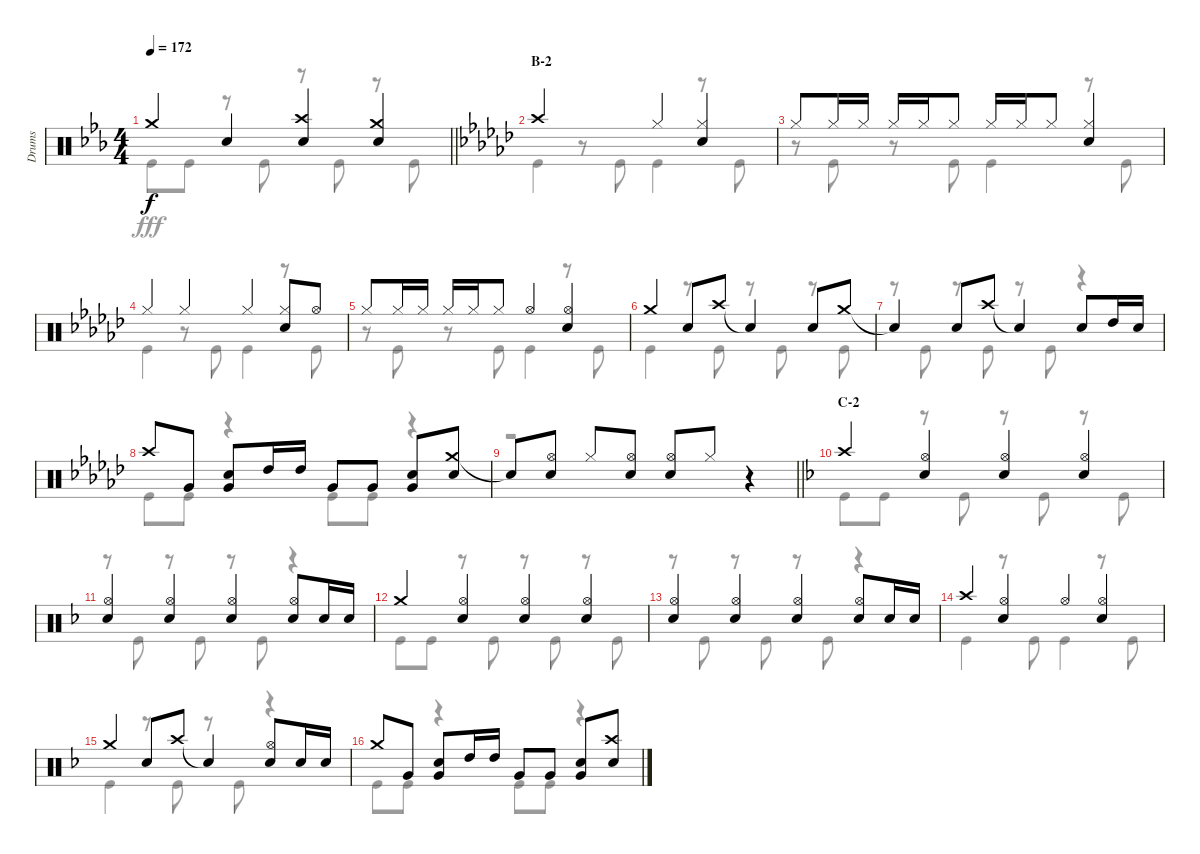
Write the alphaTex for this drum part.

\track ("Drums" "Drums") {instrument percussion}
\staff {score}
\articulation defaults
\voice
\ts (4 4)
\tempo 172
\clef neutral
\barLineRight lightlight
\ks eb "Crash medium (hit)".4{dy f} "Snare (hit) 2".4
("Crash high (hit)" "Snare (hit) 2").4 ("Crash medium (hit)" "Snare (hit) 2").4 |
\section ("" "B-2")
\ks gb "Crash high (hit)".2 "Hi-Hat (closed)".4
("Hi-Hat (closed)" "Snare (hit) 2").4 |
"Hi-Hat (closed)".8 "Hi-Hat (closed)".16 "Hi-Hat (closed)".16 "Hi-Hat (closed)".16 "Hi-Hat (closed)".16 "Hi-Hat (closed)".8 "Hi-Hat (closed)".16 "Hi-Hat (closed)".16 "Hi-Hat (closed)".8 ("Hi-Hat (closed)" "Snare (hit) 2").4 |
"Hi-Hat (closed)".4 "Hi-Hat (closed)".4 "Hi-Hat (closed)".4 ("Hi-Hat (closed)" "Snare (hit) 2").8 "Hi-Hat (open)".8 |
"Hi-Hat (closed)".8 "Hi-Hat (closed)".16 "Hi-Hat (closed)".16 "Hi-Hat (closed)".16 "Hi-Hat (closed)".16 "Hi-Hat (closed)".8 "Hi-Hat (open)".4 ("Hi-Hat (open)" "Snare (hit) 2").4 |
"Crash medium (hit)".4 "Snare (hit) 2".8 "Crash high (hit)".8 "Snare (hit)"{t}.4 "Snare (hit) 2".8 "Crash medium (hit)".8 |
"Snare (hit)"{t}.4 "Snare (hit) 2".8 "Crash high (hit)".8 "Snare (hit)"{t}.4 "Snare (hit) 2".8 "High Tom (hit)".16 "Snare (hit) 2".16 |
"Crash high (hit)".8 "Very Low Tom (hit)".8 ("Snare (hit) 2" "Very Low Tom (hit)").8 "High Tom (hit)".16 "High Tom (hit)".16 "Very Low Tom (hit)".8 "Very Low Tom (hit)".8 ("Snare (hit) 2" "Very Low Tom (hit)").8 ("Crash medium (hit)" "Snare (hit) 2").8 |
\barLineRight lightlight "Snare (hit)"{t}.8
("Hi-Hat (open)" "Snare (hit) 2").8 "Hi-Hat (closed)".8 ("Hi-Hat (open)" "Snare (hit) 2").8 ("Hi-Hat (open)" "Snare (hit) 2").8 "Hi-Hat (closed)".8 r.4 |
\section ("" "C-2")
\ks f "Crash high (hit)".4
("Hi-Hat (open)" "Snare (hit) 2").4 ("Hi-Hat (open)" "Snare (hit) 2").4 ("Hi-Hat (open)" "Snare (hit) 2").4 |
("Hi-Hat (open)" "Snare (hit) 2").4 ("Hi-Hat (open)" "Snare (hit) 2").4 ("Hi-Hat (open)" "Snare (hit) 2").4 ("Hi-Hat (open)" "Snare (hit) 2").8 "Snare (hit) 2".16 "Snare (hit) 2".16 |
"Crash medium (hit)".4 ("Hi-Hat (open)" "Snare (hit) 2").4 ("Hi-Hat (open)" "Snare (hit) 2").4 ("Hi-Hat (open)" "Snare (hit) 2").4 |
("Hi-Hat (open)" "Snare (hit) 2").4 ("Hi-Hat (open)" "Snare (hit) 2").4 ("Hi-Hat (open)" "Snare (hit) 2").4 ("Hi-Hat (open)" "Snare (hit) 2").8 "Snare (hit) 2".16 "Snare (hit) 2".16 |
"Crash high (hit)".4 ("Hi-Hat (open)" "Snare (hit) 2").4 "Hi-Hat (open)".4 ("Hi-Hat (open)" "Snare (hit) 2").4 |
"Crash medium (hit)".4 "Snare (hit) 2".8 "Crash high (hit)".8 "Snare (hit)"{t}.4 ("Hi-Hat (open)" "Snare (hit) 2").8 "Snare (hit) 2".16 "Snare (hit) 2".16 |
"Crash medium (hit)".8 "Very Low Tom (hit)".8 ("Snare (hit) 2" "Very Low Tom (hit)").8 "High Tom (hit)".16 "High Tom (hit)".16 "Very Low Tom (hit)".8 "Very Low Tom (hit)".8 ("Snare (hit) 2" "Very Low Tom (hit)").8 ("Crash high (hit)" "Snare (hit) 2").8
\voice
\clef neutral
\ottava regular
\simile none
\barLineRight lightlight
\ks eb "Kick (hit)".8{dy fff} "Kick (hit)".8
r.8 "Kick (hit)".8 r.8 "Kick (hit)".8 r.8 "Kick (hit)".8 |
\ks gb "Kick (hit)".4
r.8 "Kick (hit)".8 "Kick (hit)".4 r.8 "Kick (hit)".8 |
r.8 "Kick (hit)".8 r.8 "Kick (hit)".8 "Kick (hit)".4 r.8 "Kick (hit)".8 |
"Kick (hit)".4 r.8 "Kick (hit)".8 "Kick (hit)".4 r.8 "Kick (hit)".8 |
r.8 "Kick (hit)".8 r.8 "Kick (hit)".8 "Kick (hit)".4 r.8 "Kick (hit)".8 |
"Kick (hit)".4 r.8 "Kick (hit)".8 r.8 "Kick (hit)".8 r.8 "Kick (hit)".8 |
r.8 "Kick (hit)".8 r.8 "Kick (hit)".8 r.8 "Kick (hit)".8 r.4 |
"Kick (hit)".8 "Kick (hit)".8 r.4 "Kick (hit)".8 "Kick (hit)".8 r.4 |
\barLineRight lightlight
r.1 |
\ks f "Kick (hit)".8 "Kick (hit)".8
r.8 "Kick (hit)".8 r.8 "Kick (hit)".8 r.8 "Kick (hit)".8 |
r.8 "Kick (hit)".8 r.8 "Kick (hit)".8 r.8 "Kick (hit)".8 r.4 |
"Kick (hit)".8 "Kick (hit)".8 r.8 "Kick (hit)".8 r.8 "Kick (hit)".8 r.8 "Kick (hit)".8 |
r.8 "Kick (hit)".8 r.8 "Kick (hit)".8 r.8 "Kick (hit)".8 r.4 |
"Kick (hit)".4 r.8 "Kick (hit)".8 "Kick (hit)".4 r.8 "Kick (hit)".8 |
"Kick (hit)".4 r.8 "Kick (hit)".8 r.8 "Kick (hit)".8 r.4 |
"Kick (hit)".8 "Kick (hit)".8 r.4 "Kick (hit)".8 "Kick (hit)".8 r.4
